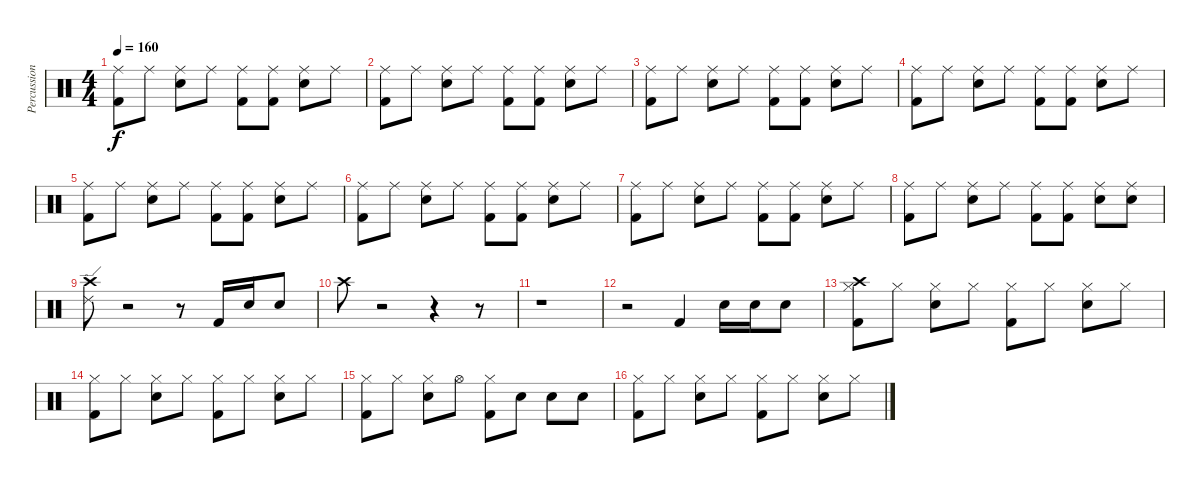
\track ("Percussions" "Percussion") {instrument percussion}
\staff {score}
\articulation defaults
\ts (4 4)
\tempo 160
\clef neutral
\ks c
("Ride (middle)" "Kick (hit) 2").8{dy f} "Ride (middle)".8 ("Ride (middle)" "Snare (hit) 2").8 "Ride (middle)".8 ("Ride (middle)" "Kick (hit) 2").8 ("Ride (middle)" "Kick (hit) 2").8 ("Ride (middle)" "Snare (hit) 2").8 "Ride (middle)".8 |
("Ride (middle)" "Kick (hit) 2").8 "Ride (middle)".8 ("Ride (middle)" "Snare (hit) 2").8 "Ride (middle)".8 ("Ride (middle)" "Kick (hit) 2").8 ("Ride (middle)" "Kick (hit) 2").8 ("Ride (middle)" "Snare (hit) 2").8 "Ride (middle)".8 |
("Ride (middle)" "Kick (hit) 2").8 "Ride (middle)".8 ("Ride (middle)" "Snare (hit) 2").8 "Ride (middle)".8 ("Ride (middle)" "Kick (hit) 2").8 ("Ride (middle)" "Kick (hit) 2").8 ("Ride (middle)" "Snare (hit) 2").8 "Ride (middle)".8 |
("Ride (middle)" "Kick (hit) 2").8 "Ride (middle)".8 ("Ride (middle)" "Snare (hit) 2").8 "Ride (middle)".8 ("Ride (middle)" "Kick (hit) 2").8 ("Ride (middle)" "Kick (hit) 2").8 ("Ride (middle)" "Snare (hit) 2").8 "Ride (middle)".8 |
("Ride (middle)" "Kick (hit) 2").8 "Ride (middle)".8 ("Ride (middle)" "Snare (hit) 2").8 "Ride (middle)".8 ("Ride (middle)" "Kick (hit) 2").8 ("Ride (middle)" "Kick (hit) 2").8 ("Ride (middle)" "Snare (hit) 2").8 "Ride (middle)".8 |
("Ride (middle)" "Kick (hit) 2").8 "Ride (middle)".8 ("Ride (middle)" "Snare (hit) 2").8 "Ride (middle)".8 ("Ride (middle)" "Kick (hit) 2").8 ("Ride (middle)" "Kick (hit) 2").8 ("Ride (middle)" "Snare (hit) 2").8 "Ride (middle)".8 |
("Ride (middle)" "Kick (hit) 2").8 "Ride (middle)".8 ("Ride (middle)" "Snare (hit) 2").8 "Ride (middle)".8 ("Ride (middle)" "Kick (hit) 2").8 ("Ride (middle)" "Kick (hit) 2").8 ("Ride (middle)" "Snare (hit) 2").8 "Ride (middle)".8 |
("Ride (middle)" "Kick (hit) 2").8 "Ride (middle)".8 ("Ride (middle)" "Snare (hit) 2").8 "Ride (middle)".8 ("Ride (middle)" "Kick (hit) 2").8 ("Ride (middle)" "Kick (hit) 2").8 ("Ride (middle)" "Snare (hit) 2").8 ("Snare (hit) 2" "Ride (middle)").8 |
("Ride (edge) 2" "Crash high (hit)").8 r.2 r.8 "Kick (hit) 2".16 "Snare (hit) 2".16 "Snare (hit) 2".8 |
"Crash high (hit)".8 r.2 r.4 r.8 |
r.1 |
r.2 "Kick (hit) 2".4 "Snare (hit) 2".16 "Snare (hit) 2".16 "Snare (hit) 2".8 |
("Crash high (hit)" "Hi-Hat (closed)" "Kick (hit) 2").8 "Hi-Hat (closed)".8 ("Hi-Hat (closed)" "Snare (hit) 2").8 "Hi-Hat (closed)".8 ("Hi-Hat (closed)" "Kick (hit) 2").8 "Hi-Hat (closed)".8 ("Hi-Hat (closed)" "Snare (hit) 2").8 "Hi-Hat (closed)".8 |
("Hi-Hat (closed)" "Kick (hit) 2").8 "Hi-Hat (closed)".8 ("Hi-Hat (closed)" "Snare (hit) 2").8 "Hi-Hat (closed)".8 ("Hi-Hat (closed)" "Kick (hit) 2").8 "Hi-Hat (closed)".8 ("Hi-Hat (closed)" "Snare (hit) 2").8 "Hi-Hat (closed)".8 |
("Hi-Hat (closed)" "Kick (hit) 2").8 "Hi-Hat (closed)".8 ("Hi-Hat (closed)" "Snare (hit) 2").8 "Hi-Hat (open)".8 ("Hi-Hat (closed)" "Kick (hit) 2").8 "Snare (hit) 2".8 "Snare (hit) 2".8 "Snare (hit) 2".8 |
("Hi-Hat (closed)" "Kick (hit) 2").8 "Hi-Hat (closed)".8 ("Hi-Hat (closed)" "Snare (hit) 2").8 "Hi-Hat (closed)".8 ("Hi-Hat (closed)" "Kick (hit) 2").8 "Hi-Hat (closed)".8 ("Hi-Hat (closed)" "Snare (hit) 2").8 "Hi-Hat (closed)".8
